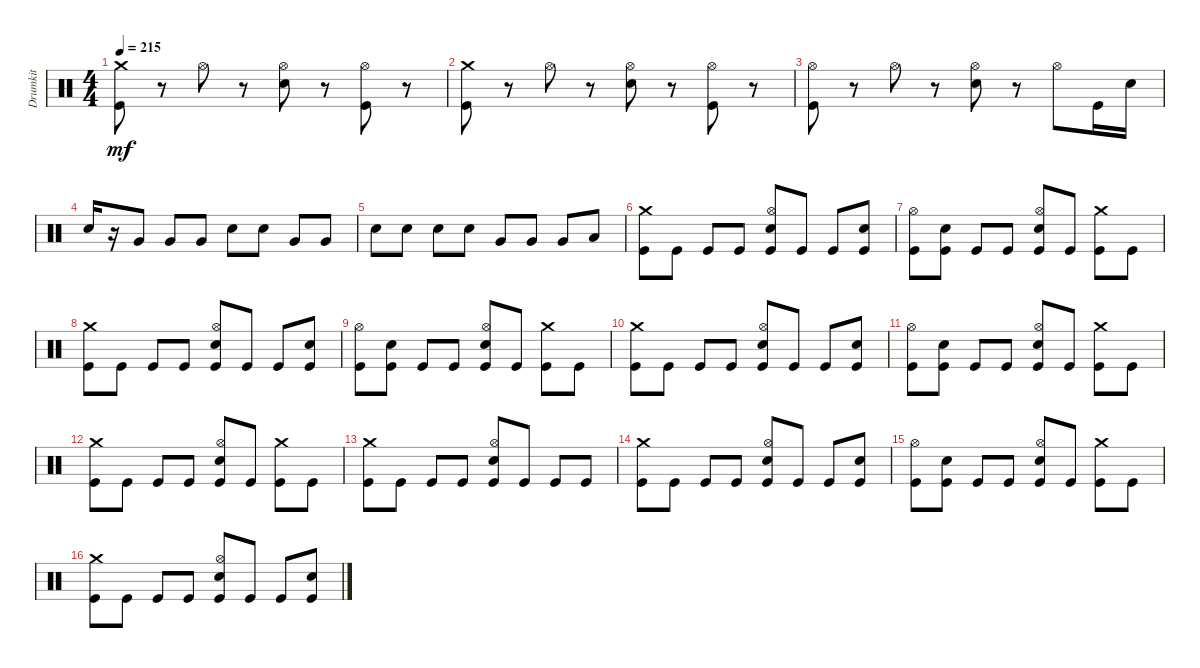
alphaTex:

\track ("Drumkit" "Drumkit") {instrument percussion}
\staff {score}
\articulation defaults
\ts (4 4)
\tempo 215
\clef neutral
\ks c
("Kick (hit)" "Crash medium (hit)").8{dy mf} r.8 "Hi-Hat (open)".8 r.8 ("Snare (hit) 2" "Hi-Hat (open)").8 r.8 ("Kick (hit)" "Hi-Hat (open)").8 r.8 |
("Kick (hit)" "Crash medium (hit)").8 r.8 "Hi-Hat (open)".8 r.8 ("Snare (hit) 2" "Hi-Hat (open)").8 r.8 ("Kick (hit)" "Hi-Hat (open)").8 r.8 |
("Kick (hit)" "Hi-Hat (open)").8 r.8 "Hi-Hat (open)".8 r.8 ("Snare (hit) 2" "Hi-Hat (open)").8 r.8 "Hi-Hat (open)".8 "Kick (hit)".16 "Snare (hit) 2".16 |
"Snare (hit) 2".16 r.16 "Very Low Tom (hit)".8 "Very Low Tom (hit)".8 "Very Low Tom (hit)".8 "Snare (hit) 2".8 "Snare (hit) 2".8 "Very Low Tom (hit)".8 "Very Low Tom (hit)".8 |
"Snare (hit) 2".8 "Snare (hit) 2".8 "Snare (hit) 2".8 "Snare (hit) 2".8 "Very Low Tom (hit)".8 "Very Low Tom (hit)".8 "Very Low Tom (hit)".8 "Low Tom (hit)".8 |
("Kick (hit)" "Crash medium (hit)").8 "Kick (hit)".8 "Kick (hit)".8 "Kick (hit)".8 ("Kick (hit)" "Snare (hit) 2" "Hi-Hat (open)").8 "Kick (hit)".8 "Kick (hit)".8 ("Kick (hit)" "Snare (hit) 2").8 |
("Kick (hit)" "Hi-Hat (open)").8 ("Kick (hit)" "Snare (hit) 2").8 "Kick (hit)".8 "Kick (hit)".8 ("Kick (hit)" "Snare (hit) 2" "Hi-Hat (open)").8 "Kick (hit)".8 ("Kick (hit)" "Crash medium (hit)").8 "Kick (hit)".8 |
("Kick (hit)" "Crash medium (hit)").8 "Kick (hit)".8 "Kick (hit)".8 "Kick (hit)".8 ("Kick (hit)" "Snare (hit) 2" "Hi-Hat (open)").8 "Kick (hit)".8 "Kick (hit)".8 ("Kick (hit)" "Snare (hit) 2").8 |
("Kick (hit)" "Hi-Hat (open)").8 ("Kick (hit)" "Snare (hit) 2").8 "Kick (hit)".8 "Kick (hit)".8 ("Kick (hit)" "Snare (hit) 2" "Hi-Hat (open)").8 "Kick (hit)".8 ("Kick (hit)" "Crash medium (hit)").8 "Kick (hit)".8 |
("Kick (hit)" "Crash medium (hit)").8 "Kick (hit)".8 "Kick (hit)".8 "Kick (hit)".8 ("Kick (hit)" "Snare (hit) 2" "Hi-Hat (open)").8 "Kick (hit)".8 "Kick (hit)".8 ("Kick (hit)" "Snare (hit) 2").8 |
("Kick (hit)" "Hi-Hat (open)").8 ("Kick (hit)" "Snare (hit) 2").8 "Kick (hit)".8 "Kick (hit)".8 ("Kick (hit)" "Snare (hit) 2" "Hi-Hat (open)").8 "Kick (hit)".8 ("Kick (hit)" "Crash medium (hit)").8 "Kick (hit)".8 |
("Kick (hit)" "Crash medium (hit)").8 "Kick (hit)".8 "Kick (hit)".8 "Kick (hit)".8 ("Kick (hit)" "Snare (hit) 2" "Hi-Hat (open)").8 "Kick (hit)".8 ("Kick (hit)" "Crash medium (hit)").8 "Kick (hit)".8 |
("Kick (hit)" "Crash medium (hit)").8 "Kick (hit)".8 "Kick (hit)".8 "Kick (hit)".8 ("Kick (hit)" "Snare (hit) 2" "Hi-Hat (open)").8 "Kick (hit)".8 "Kick (hit)".8 "Kick (hit)".8 |
("Kick (hit)" "Crash medium (hit)").8 "Kick (hit)".8 "Kick (hit)".8 "Kick (hit)".8 ("Kick (hit)" "Snare (hit) 2" "Hi-Hat (open)").8 "Kick (hit)".8 "Kick (hit)".8 ("Kick (hit)" "Snare (hit) 2").8 |
("Kick (hit)" "Hi-Hat (open)").8 ("Kick (hit)" "Snare (hit) 2").8 "Kick (hit)".8 "Kick (hit)".8 ("Kick (hit)" "Snare (hit) 2" "Hi-Hat (open)").8 "Kick (hit)".8 ("Kick (hit)" "Crash medium (hit)").8 "Kick (hit)".8 |
("Kick (hit)" "Crash medium (hit)").8 "Kick (hit)".8 "Kick (hit)".8 "Kick (hit)".8 ("Kick (hit)" "Snare (hit) 2" "Hi-Hat (open)").8 "Kick (hit)".8 "Kick (hit)".8 ("Kick (hit)" "Snare (hit) 2").8
